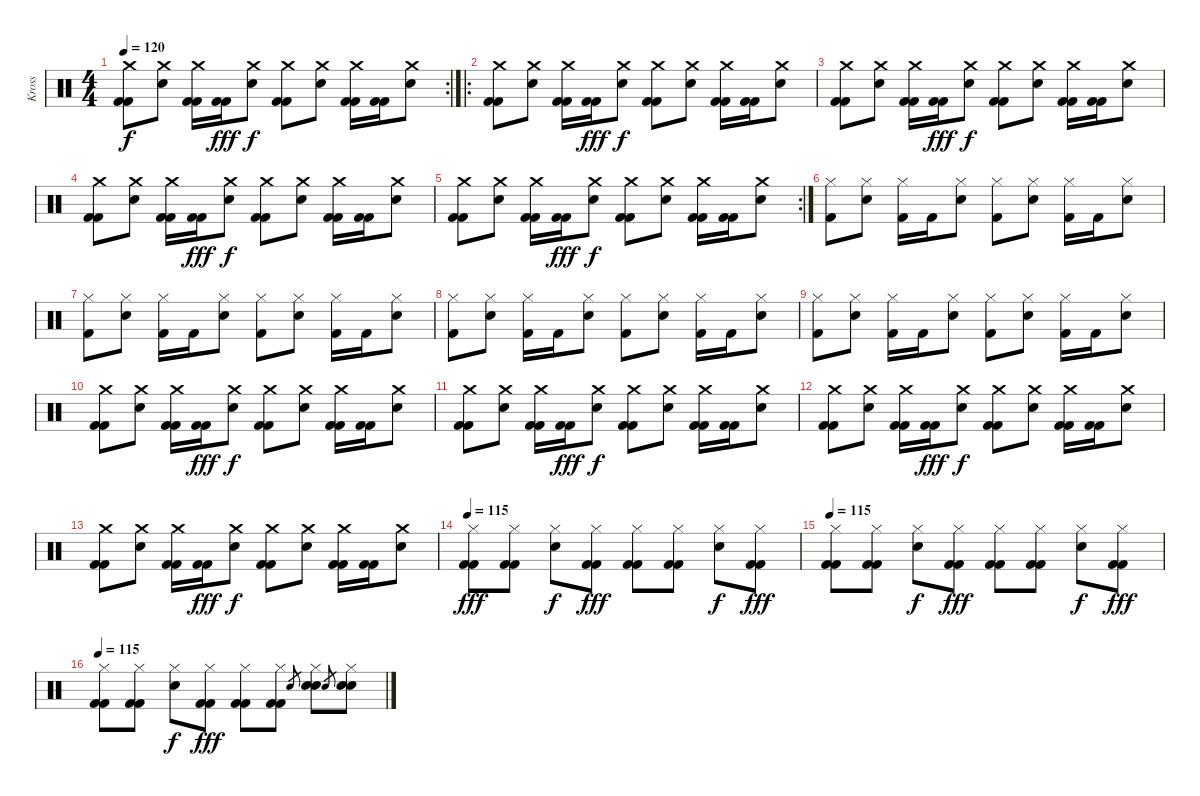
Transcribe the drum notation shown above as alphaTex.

\track ("Kross" "Kross") {instrument percussion}
\staff {score}
\articulation defaults
\rc 2
\ts (4 4)
\tempo 120
\clef neutral
\ks c
("Kick (hit) 2" "Kick (hit) 2" "Crash medium (hit)").8{dy f} ("Crash medium (hit)" "Snare (hit) 2").8 ("Kick (hit) 2" "Kick (hit) 2" "Crash medium (hit)").16 ("Kick (hit) 2" "Kick (hit) 2").16{dy fff} ("Crash medium (hit)" "Snare (hit) 2").8{dy f} ("Kick (hit) 2" "Kick (hit) 2" "Crash medium (hit)").8 ("Crash medium (hit)" "Snare (hit) 2").8 ("Kick (hit) 2" "Kick (hit) 2" "Crash medium (hit)").16 ("Kick (hit) 2" "Kick (hit) 2").16 ("Crash medium (hit)" "Snare (hit) 2").8 |
\ro
("Kick (hit) 2" "Kick (hit) 2" "Crash medium (hit)").8 ("Crash medium (hit)" "Snare (hit) 2").8 ("Kick (hit) 2" "Kick (hit) 2" "Crash medium (hit)").16 ("Kick (hit) 2" "Kick (hit) 2").16{dy fff} ("Crash medium (hit)" "Snare (hit) 2").8{dy f} ("Kick (hit) 2" "Kick (hit) 2" "Crash medium (hit)").8 ("Crash medium (hit)" "Snare (hit) 2").8 ("Kick (hit) 2" "Kick (hit) 2" "Crash medium (hit)").16 ("Kick (hit) 2" "Kick (hit) 2").16 ("Crash medium (hit)" "Snare (hit) 2").8 |
("Kick (hit) 2" "Kick (hit) 2" "Crash medium (hit)").8 ("Crash medium (hit)" "Snare (hit) 2").8 ("Kick (hit) 2" "Kick (hit) 2" "Crash medium (hit)").16 ("Kick (hit) 2" "Kick (hit) 2").16{dy fff} ("Crash medium (hit)" "Snare (hit) 2").8{dy f} ("Kick (hit) 2" "Kick (hit) 2" "Crash medium (hit)").8 ("Crash medium (hit)" "Snare (hit) 2").8 ("Kick (hit) 2" "Kick (hit) 2" "Crash medium (hit)").16 ("Kick (hit) 2" "Kick (hit) 2").16 ("Crash medium (hit)" "Snare (hit) 2").8 |
("Kick (hit) 2" "Kick (hit) 2" "Crash medium (hit)").8 ("Crash medium (hit)" "Snare (hit) 2").8 ("Kick (hit) 2" "Kick (hit) 2" "Crash medium (hit)").16 ("Kick (hit) 2" "Kick (hit) 2").16{dy fff} ("Crash medium (hit)" "Snare (hit) 2").8{dy f} ("Kick (hit) 2" "Kick (hit) 2" "Crash medium (hit)").8 ("Crash medium (hit)" "Snare (hit) 2").8 ("Kick (hit) 2" "Kick (hit) 2" "Crash medium (hit)").16 ("Kick (hit) 2" "Kick (hit) 2").16 ("Crash medium (hit)" "Snare (hit) 2").8 |
\rc 2
("Kick (hit) 2" "Kick (hit) 2" "Crash medium (hit)").8 ("Crash medium (hit)" "Snare (hit) 2").8 ("Kick (hit) 2" "Kick (hit) 2" "Crash medium (hit)").16 ("Kick (hit) 2" "Kick (hit) 2").16{dy fff} ("Crash medium (hit)" "Snare (hit) 2").8{dy f} ("Kick (hit) 2" "Kick (hit) 2" "Crash medium (hit)").8 ("Crash medium (hit)" "Snare (hit) 2").8 ("Kick (hit) 2" "Kick (hit) 2" "Crash medium (hit)").16 ("Kick (hit) 2" "Kick (hit) 2").16 ("Crash medium (hit)" "Snare (hit) 2").8 |
("Kick (hit) 2" "Hi-Hat (closed)").8 ("Hi-Hat (closed)" "Snare (hit) 2").8 ("Kick (hit) 2" "Hi-Hat (closed)").16 "Kick (hit) 2".16 ("Hi-Hat (closed)" "Snare (hit) 2").8 ("Kick (hit) 2" "Hi-Hat (closed)").8 ("Hi-Hat (closed)" "Snare (hit) 2").8 ("Kick (hit) 2" "Hi-Hat (closed)").16 "Kick (hit) 2".16 ("Hi-Hat (closed)" "Snare (hit) 2").8 |
("Kick (hit) 2" "Hi-Hat (closed)").8 ("Hi-Hat (closed)" "Snare (hit) 2").8 ("Kick (hit) 2" "Hi-Hat (closed)").16 "Kick (hit) 2".16 ("Hi-Hat (closed)" "Snare (hit) 2").8 ("Kick (hit) 2" "Hi-Hat (closed)").8 ("Hi-Hat (closed)" "Snare (hit) 2").8 ("Kick (hit) 2" "Hi-Hat (closed)").16 "Kick (hit) 2".16 ("Hi-Hat (closed)" "Snare (hit) 2").8 |
("Kick (hit) 2" "Hi-Hat (closed)").8 ("Hi-Hat (closed)" "Snare (hit) 2").8 ("Kick (hit) 2" "Hi-Hat (closed)").16 "Kick (hit) 2".16 ("Hi-Hat (closed)" "Snare (hit) 2").8 ("Kick (hit) 2" "Hi-Hat (closed)").8 ("Hi-Hat (closed)" "Snare (hit) 2").8 ("Kick (hit) 2" "Hi-Hat (closed)").16 "Kick (hit) 2".16 ("Hi-Hat (closed)" "Snare (hit) 2").8 |
("Kick (hit) 2" "Hi-Hat (closed)").8 ("Hi-Hat (closed)" "Snare (hit) 2").8 ("Kick (hit) 2" "Hi-Hat (closed)").16 "Kick (hit) 2".16 ("Hi-Hat (closed)" "Snare (hit) 2").8 ("Kick (hit) 2" "Hi-Hat (closed)").8 ("Hi-Hat (closed)" "Snare (hit) 2").8 ("Kick (hit) 2" "Hi-Hat (closed)").16 "Kick (hit) 2".16 ("Hi-Hat (closed)" "Snare (hit) 2").8 |
("Kick (hit) 2" "Kick (hit) 2" "Crash medium (hit)").8 ("Crash medium (hit)" "Snare (hit) 2").8 ("Kick (hit) 2" "Kick (hit) 2" "Crash medium (hit)").16 ("Kick (hit) 2" "Kick (hit) 2").16{dy fff} ("Crash medium (hit)" "Snare (hit) 2").8{dy f} ("Kick (hit) 2" "Kick (hit) 2" "Crash medium (hit)").8 ("Crash medium (hit)" "Snare (hit) 2").8 ("Kick (hit) 2" "Kick (hit) 2" "Crash medium (hit)").16 ("Kick (hit) 2" "Kick (hit) 2").16 ("Crash medium (hit)" "Snare (hit) 2").8 |
("Kick (hit) 2" "Kick (hit) 2" "Crash medium (hit)").8 ("Crash medium (hit)" "Snare (hit) 2").8 ("Kick (hit) 2" "Kick (hit) 2" "Crash medium (hit)").16 ("Kick (hit) 2" "Kick (hit) 2").16{dy fff} ("Crash medium (hit)" "Snare (hit) 2").8{dy f} ("Kick (hit) 2" "Kick (hit) 2" "Crash medium (hit)").8 ("Crash medium (hit)" "Snare (hit) 2").8 ("Kick (hit) 2" "Kick (hit) 2" "Crash medium (hit)").16 ("Kick (hit) 2" "Kick (hit) 2").16 ("Crash medium (hit)" "Snare (hit) 2").8 |
("Kick (hit) 2" "Kick (hit) 2" "Crash medium (hit)").8 ("Crash medium (hit)" "Snare (hit) 2").8 ("Kick (hit) 2" "Kick (hit) 2" "Crash medium (hit)").16 ("Kick (hit) 2" "Kick (hit) 2").16{dy fff} ("Crash medium (hit)" "Snare (hit) 2").8{dy f} ("Kick (hit) 2" "Kick (hit) 2" "Crash medium (hit)").8 ("Crash medium (hit)" "Snare (hit) 2").8 ("Kick (hit) 2" "Kick (hit) 2" "Crash medium (hit)").16 ("Kick (hit) 2" "Kick (hit) 2").16 ("Crash medium (hit)" "Snare (hit) 2").8 |
("Kick (hit) 2" "Kick (hit) 2" "Crash medium (hit)").8 ("Crash medium (hit)" "Snare (hit) 2").8 ("Kick (hit) 2" "Kick (hit) 2" "Crash medium (hit)").16 ("Kick (hit) 2" "Kick (hit) 2").16{dy fff} ("Crash medium (hit)" "Snare (hit) 2").8{dy f} ("Kick (hit) 2" "Kick (hit) 2" "Crash medium (hit)").8 ("Crash medium (hit)" "Snare (hit) 2").8 ("Kick (hit) 2" "Kick (hit) 2" "Crash medium (hit)").16 ("Kick (hit) 2" "Kick (hit) 2").16 ("Crash medium (hit)" "Snare (hit) 2").8 |
\tempo 115
("Kick (hit) 2" "Kick (hit) 2" "Hi-Hat (closed)").8{dy fff} ("Kick (hit) 2" "Kick (hit) 2" "Hi-Hat (closed)").8 ("Hi-Hat (closed)" "Snare (hit) 2").8{dy f} ("Kick (hit) 2" "Kick (hit) 2" "Hi-Hat (closed)").8{dy fff} ("Kick (hit) 2" "Kick (hit) 2" "Hi-Hat (closed)").8 ("Kick (hit) 2" "Kick (hit) 2" "Hi-Hat (closed)").8 ("Hi-Hat (closed)" "Snare (hit) 2").8{dy f} ("Kick (hit) 2" "Kick (hit) 2" "Hi-Hat (closed)").8{dy fff} |
\tempo 115
("Kick (hit) 2" "Kick (hit) 2" "Hi-Hat (closed)").8 ("Kick (hit) 2" "Kick (hit) 2" "Hi-Hat (closed)").8 ("Hi-Hat (closed)" "Snare (hit) 2").8{dy f} ("Kick (hit) 2" "Kick (hit) 2" "Hi-Hat (closed)").8{dy fff} ("Kick (hit) 2" "Kick (hit) 2" "Hi-Hat (closed)").8 ("Kick (hit) 2" "Kick (hit) 2" "Hi-Hat (closed)").8 ("Hi-Hat (closed)" "Snare (hit) 2").8{dy f} ("Kick (hit) 2" "Kick (hit) 2" "Hi-Hat (closed)").8{dy fff} |
\tempo 115
("Kick (hit) 2" "Kick (hit) 2" "Hi-Hat (closed)").8 ("Kick (hit) 2" "Kick (hit) 2" "Hi-Hat (closed)").8 ("Hi-Hat (closed)" "Snare (hit) 2").8{dy f} ("Kick (hit) 2" "Kick (hit) 2" "Hi-Hat (closed)").8{dy fff} ("Kick (hit) 2" "Kick (hit) 2" "Hi-Hat (closed)").8 ("Kick (hit) 2" "Kick (hit) 2" "Hi-Hat (closed)").8 "Snare (hit) 2".8{gr} ("Snare (hit) 2" "Hi-Hat (closed)" "Snare (hit) 2").8 "Snare (hit) 2".8{gr} ("Snare (hit) 2" "Hi-Hat (closed)" "Snare (hit) 2").8
